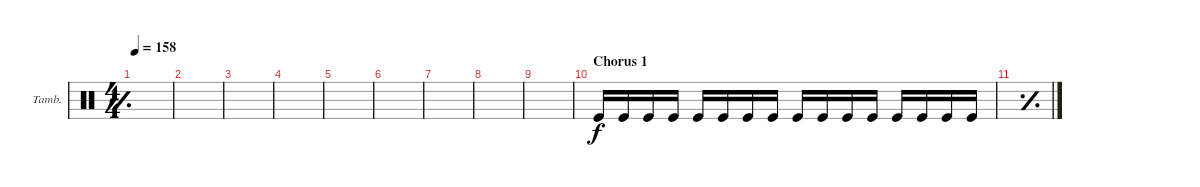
\defaultSystemsLayout 4
\bracketExtendMode groupsimilarinstruments
\firstSystemTrackNameOrientation horizontal
\otherSystemsTrackNameOrientation horizontal
\track ("Tambourine" "Tamb.") {instrument percussion}
\staff {score}
\articulation defaults
\ts (4 4)
\tempo 158
\clef neutral
\simile simple
\ks c
|
|
|
|
|
|
|
|
|
\section ("" "Chorus 1")
\simile none "Kick (hit)".16 "Kick (hit)".16 "Kick (hit)".16 "Kick (hit)".16 "Kick (hit)".16 "Kick (hit)".16 "Kick (hit)".16 "Kick (hit)".16 "Kick (hit)".16 "Kick (hit)".16 "Kick (hit)".16 "Kick (hit)".16 "Kick (hit)".16 "Kick (hit)".16 "Kick (hit)".16 "Kick (hit)".16
|
\simile simple
